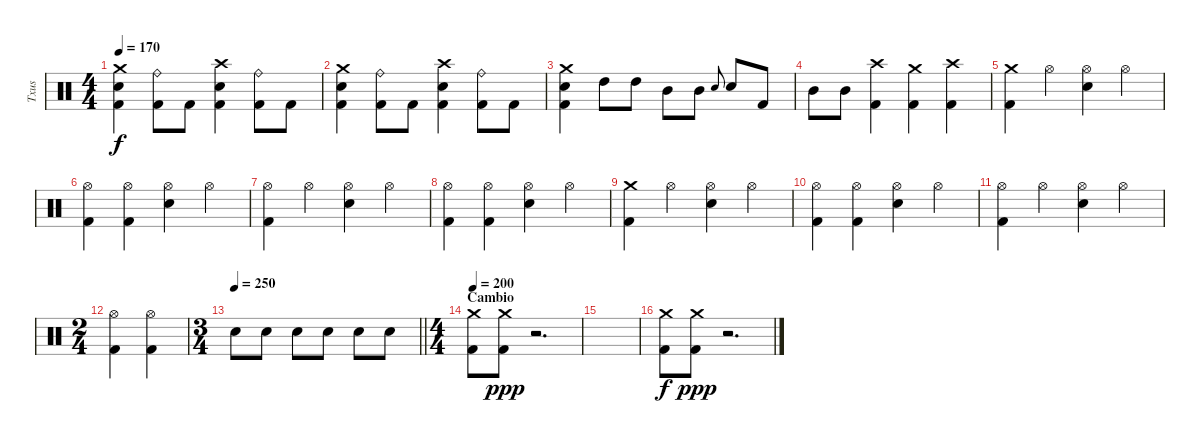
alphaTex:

\track ("Txus" "Txus") {instrument percussion}
\staff {score}
\articulation defaults
\ts (4 4)
\tempo 170
\clef neutral
\ks c
("Crash medium (hit)" "Snare (hit) 2" "Kick (hit) 2").4{dy f} ("Ride (bell)" "Kick (hit) 2").8 "Kick (hit) 2".8 ("Crash high (hit)" "Snare (hit) 2" "Kick (hit) 2").4 ("Ride (bell)" "Kick (hit) 2").8 "Kick (hit) 2".8 |
("Crash medium (hit)" "Snare (hit) 2" "Kick (hit) 2").4 ("Ride (bell)" "Kick (hit) 2").8 "Kick (hit) 2".8 ("Crash high (hit)" "Snare (hit) 2" "Kick (hit) 2").4 ("Ride (bell)" "Kick (hit) 2").8 "Kick (hit) 2".8 |
("Crash medium (hit)" "Snare (hit) 2" "Kick (hit) 2").4 "High Tom (hit)".8 "High Tom (hit)".8 "Mid Tom (hit)".8 "Mid Tom (hit)".8 "Snare (hit) 2".8{gr onbeat} "Snare (hit) 2".8 "Kick (hit) 2".8 |
"Mid Tom (hit)".8 "Mid Tom (hit)".8 ("Crash high (hit)" "Kick (hit) 2").4 ("Crash medium (hit)" "Kick (hit) 2").4 ("Crash high (hit)" "Kick (hit) 2").4 |
("Crash medium (hit)" "Kick (hit) 2").4 "Hi-Hat (open)".4 ("Hi-Hat (open)" "Snare (hit) 2").4 "Hi-Hat (open)".4 |
("Hi-Hat (open)" "Kick (hit) 2").4 ("Hi-Hat (open)" "Kick (hit) 2").4 ("Hi-Hat (open)" "Snare (hit) 2").4 "Hi-Hat (open)".4 |
("Hi-Hat (open)" "Kick (hit) 2").4 "Hi-Hat (open)".4 ("Hi-Hat (open)" "Snare (hit) 2").4 "Hi-Hat (open)".4 |
("Hi-Hat (open)" "Kick (hit) 2").4 ("Hi-Hat (open)" "Kick (hit) 2").4 ("Hi-Hat (open)" "Snare (hit) 2").4 "Hi-Hat (open)".4 |
("Crash medium (hit)" "Kick (hit) 2").4 "Hi-Hat (open)".4 ("Hi-Hat (open)" "Snare (hit) 2").4 "Hi-Hat (open)".4 |
("Hi-Hat (open)" "Kick (hit) 2").4 ("Hi-Hat (open)" "Kick (hit) 2").4 ("Hi-Hat (open)" "Snare (hit) 2").4 "Hi-Hat (open)".4 |
("Hi-Hat (open)" "Kick (hit) 2").4 "Hi-Hat (open)".4 ("Hi-Hat (open)" "Snare (hit) 2").4 "Hi-Hat (open)".4 |
\ts (2 4)
("Hi-Hat (open)" "Kick (hit) 2").4 ("Hi-Hat (open)" "Kick (hit) 2").4 |
\ts (3 4)
\tempo 250
\barLineRight lightlight "Snare (hit) 2".8 "Snare (hit) 2".8 "Snare (hit) 2".8 "Snare (hit) 2".8 "Snare (hit) 2".8 "Snare (hit) 2".8
|
\ts (4 4)
\section ("" "Cambio")
\tempo 200
("Crash medium (hit)" "Kick (hit) 2").8 ("Crash medium (hit)" "Kick (hit) 2").8{dy ppp} r.2{d} |
|
("Crash medium (hit)" "Kick (hit) 2").8{dy f} ("Crash medium (hit)" "Kick (hit) 2").8{dy ppp} r.2{d}
